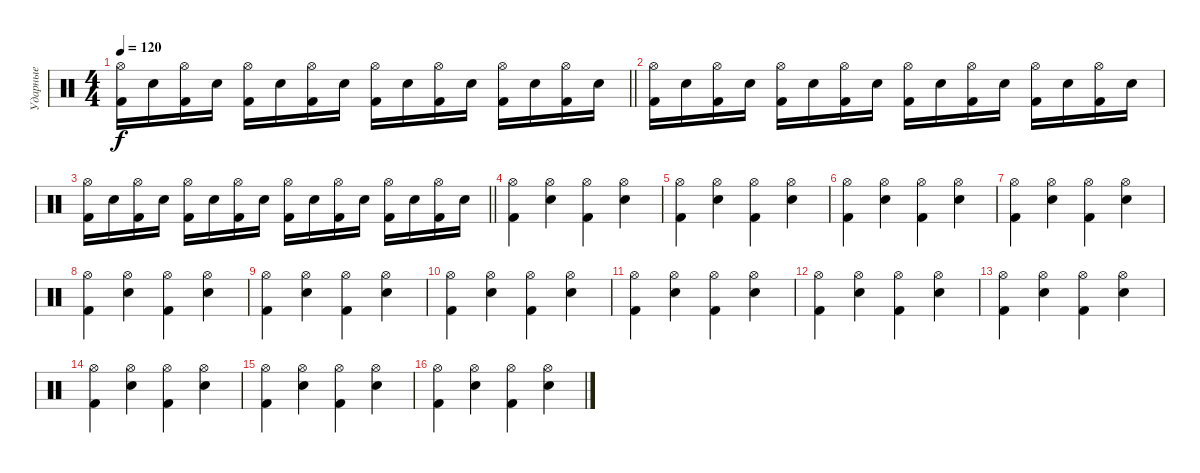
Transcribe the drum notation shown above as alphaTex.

\track ("Ударные" "Ударные") {instrument percussion}
\staff {score}
\articulation defaults
\ts (4 4)
\tempo 120
\clef neutral
\barLineRight lightlight
\ks c
("Kick (hit) 2" "Hi-Hat (open)").16{dy f} "Electric Snare (hit)".16 ("Kick (hit) 2" "Hi-Hat (open)").16 "Electric Snare (hit)".16 ("Kick (hit) 2" "Hi-Hat (open)").16 "Electric Snare (hit)".16 ("Kick (hit) 2" "Hi-Hat (open)").16 "Electric Snare (hit)".16 ("Kick (hit) 2" "Hi-Hat (open)").16 "Electric Snare (hit)".16 ("Kick (hit) 2" "Hi-Hat (open)").16 "Electric Snare (hit)".16 ("Kick (hit) 2" "Hi-Hat (open)").16 "Electric Snare (hit)".16 ("Kick (hit) 2" "Hi-Hat (open)").16 "Electric Snare (hit)".16 |
("Kick (hit) 2" "Hi-Hat (open)").16 "Electric Snare (hit)".16 ("Kick (hit) 2" "Hi-Hat (open)").16 "Electric Snare (hit)".16 ("Kick (hit) 2" "Hi-Hat (open)").16 "Electric Snare (hit)".16 ("Kick (hit) 2" "Hi-Hat (open)").16 "Electric Snare (hit)".16 ("Kick (hit) 2" "Hi-Hat (open)").16 "Electric Snare (hit)".16 ("Kick (hit) 2" "Hi-Hat (open)").16 "Electric Snare (hit)".16 ("Kick (hit) 2" "Hi-Hat (open)").16 "Electric Snare (hit)".16 ("Kick (hit) 2" "Hi-Hat (open)").16 "Electric Snare (hit)".16 |
\barLineRight lightlight
("Kick (hit) 2" "Hi-Hat (open)").16 "Electric Snare (hit)".16 ("Kick (hit) 2" "Hi-Hat (open)").16 "Electric Snare (hit)".16 ("Kick (hit) 2" "Hi-Hat (open)").16 "Electric Snare (hit)".16 ("Kick (hit) 2" "Hi-Hat (open)").16 "Electric Snare (hit)".16 ("Kick (hit) 2" "Hi-Hat (open)").16 "Electric Snare (hit)".16 ("Kick (hit) 2" "Hi-Hat (open)").16 "Electric Snare (hit)".16 ("Kick (hit) 2" "Hi-Hat (open)").16 "Electric Snare (hit)".16 ("Kick (hit) 2" "Hi-Hat (open)").16 "Electric Snare (hit)".16 |
("Kick (hit) 2" "Hi-Hat (open)").4 ("Electric Snare (hit)" "Hi-Hat (open)").4 ("Kick (hit) 2" "Hi-Hat (open)").4 ("Electric Snare (hit)" "Hi-Hat (open)").4 |
("Kick (hit) 2" "Hi-Hat (open)").4 ("Electric Snare (hit)" "Hi-Hat (open)").4 ("Kick (hit) 2" "Hi-Hat (open)").4 ("Electric Snare (hit)" "Hi-Hat (open)").4 |
("Kick (hit) 2" "Hi-Hat (open)").4 ("Electric Snare (hit)" "Hi-Hat (open)").4 ("Kick (hit) 2" "Hi-Hat (open)").4 ("Electric Snare (hit)" "Hi-Hat (open)").4 |
("Kick (hit) 2" "Hi-Hat (open)").4 ("Electric Snare (hit)" "Hi-Hat (open)").4 ("Kick (hit) 2" "Hi-Hat (open)").4 ("Electric Snare (hit)" "Hi-Hat (open)").4 |
("Kick (hit) 2" "Hi-Hat (open)").4 ("Electric Snare (hit)" "Hi-Hat (open)").4 ("Kick (hit) 2" "Hi-Hat (open)").4 ("Electric Snare (hit)" "Hi-Hat (open)").4 |
("Kick (hit) 2" "Hi-Hat (open)").4 ("Electric Snare (hit)" "Hi-Hat (open)").4 ("Kick (hit) 2" "Hi-Hat (open)").4 ("Electric Snare (hit)" "Hi-Hat (open)").4 |
("Kick (hit) 2" "Hi-Hat (open)").4 ("Electric Snare (hit)" "Hi-Hat (open)").4 ("Kick (hit) 2" "Hi-Hat (open)").4 ("Electric Snare (hit)" "Hi-Hat (open)").4 |
("Kick (hit) 2" "Hi-Hat (open)").4 ("Electric Snare (hit)" "Hi-Hat (open)").4 ("Kick (hit) 2" "Hi-Hat (open)").4 ("Electric Snare (hit)" "Hi-Hat (open)").4 |
("Kick (hit) 2" "Hi-Hat (open)").4 ("Electric Snare (hit)" "Hi-Hat (open)").4 ("Kick (hit) 2" "Hi-Hat (open)").4 ("Electric Snare (hit)" "Hi-Hat (open)").4 |
("Kick (hit) 2" "Hi-Hat (open)").4 ("Electric Snare (hit)" "Hi-Hat (open)").4 ("Kick (hit) 2" "Hi-Hat (open)").4 ("Electric Snare (hit)" "Hi-Hat (open)").4 |
("Kick (hit) 2" "Hi-Hat (open)").4 ("Electric Snare (hit)" "Hi-Hat (open)").4 ("Kick (hit) 2" "Hi-Hat (open)").4 ("Electric Snare (hit)" "Hi-Hat (open)").4 |
("Kick (hit) 2" "Hi-Hat (open)").4 ("Electric Snare (hit)" "Hi-Hat (open)").4 ("Kick (hit) 2" "Hi-Hat (open)").4 ("Electric Snare (hit)" "Hi-Hat (open)").4 |
("Kick (hit) 2" "Hi-Hat (open)").4 ("Electric Snare (hit)" "Hi-Hat (open)").4 ("Kick (hit) 2" "Hi-Hat (open)").4 ("Electric Snare (hit)" "Hi-Hat (open)").4
